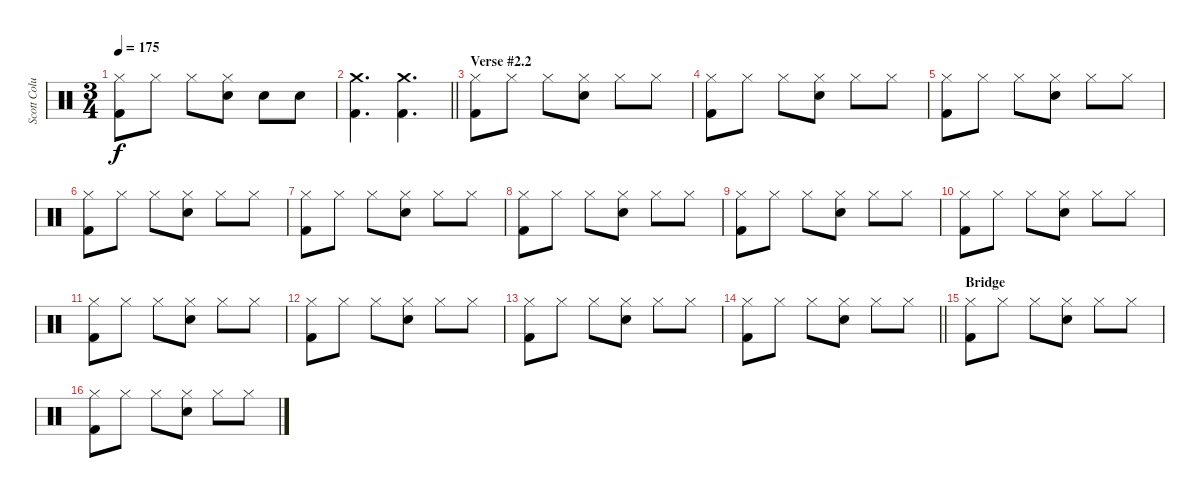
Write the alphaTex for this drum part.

\track ("Scott Columbus" "Scott Colu") {instrument percussion}
\staff {score}
\articulation defaults
\ts (3 4)
\tempo 175
\clef neutral
\ks c
("Kick (hit) 2" "Hi-Hat (closed)").8{dy f} "Hi-Hat (closed)".8 "Hi-Hat (closed)".8 ("Snare (hit) 2" "Hi-Hat (closed)").8 "Snare (hit) 2".8 "Snare (hit) 2".8 |
\barLineRight lightlight
("Kick (hit) 2" "Crash medium (hit)").4{d} ("Kick (hit) 2" "Crash medium (hit)").4{d} |
\section ("" "Verse #2.2")
("Kick (hit) 2" "Hi-Hat (closed)").8 "Hi-Hat (closed)".8 "Hi-Hat (closed)".8 ("Snare (hit) 2" "Hi-Hat (closed)").8 "Hi-Hat (closed)".8 "Hi-Hat (closed)".8 |
("Kick (hit) 2" "Hi-Hat (closed)").8 "Hi-Hat (closed)".8 "Hi-Hat (closed)".8 ("Snare (hit) 2" "Hi-Hat (closed)").8 "Hi-Hat (closed)".8 "Hi-Hat (closed)".8 |
("Kick (hit) 2" "Hi-Hat (closed)").8 "Hi-Hat (closed)".8 "Hi-Hat (closed)".8 ("Snare (hit) 2" "Hi-Hat (closed)").8 "Hi-Hat (closed)".8 "Hi-Hat (closed)".8 |
("Kick (hit) 2" "Hi-Hat (closed)").8 "Hi-Hat (closed)".8 "Hi-Hat (closed)".8 ("Snare (hit) 2" "Hi-Hat (closed)").8 "Hi-Hat (closed)".8 "Hi-Hat (closed)".8 |
("Kick (hit) 2" "Hi-Hat (closed)").8 "Hi-Hat (closed)".8 "Hi-Hat (closed)".8 ("Snare (hit) 2" "Hi-Hat (closed)").8 "Hi-Hat (closed)".8 "Hi-Hat (closed)".8 |
("Kick (hit) 2" "Hi-Hat (closed)").8 "Hi-Hat (closed)".8 "Hi-Hat (closed)".8 ("Snare (hit) 2" "Hi-Hat (closed)").8 "Hi-Hat (closed)".8 "Hi-Hat (closed)".8 |
("Kick (hit) 2" "Hi-Hat (closed)").8 "Hi-Hat (closed)".8 "Hi-Hat (closed)".8 ("Snare (hit) 2" "Hi-Hat (closed)").8 "Hi-Hat (closed)".8 "Hi-Hat (closed)".8 |
("Kick (hit) 2" "Hi-Hat (closed)").8 "Hi-Hat (closed)".8 "Hi-Hat (closed)".8 ("Snare (hit) 2" "Hi-Hat (closed)").8 "Hi-Hat (closed)".8 "Hi-Hat (closed)".8 |
("Kick (hit) 2" "Hi-Hat (closed)").8 "Hi-Hat (closed)".8 "Hi-Hat (closed)".8 ("Snare (hit) 2" "Hi-Hat (closed)").8 "Hi-Hat (closed)".8 "Hi-Hat (closed)".8 |
("Kick (hit) 2" "Hi-Hat (closed)").8 "Hi-Hat (closed)".8 "Hi-Hat (closed)".8 ("Snare (hit) 2" "Hi-Hat (closed)").8 "Hi-Hat (closed)".8 "Hi-Hat (closed)".8 |
("Kick (hit) 2" "Hi-Hat (closed)").8 "Hi-Hat (closed)".8 "Hi-Hat (closed)".8 ("Snare (hit) 2" "Hi-Hat (closed)").8 "Hi-Hat (closed)".8 "Hi-Hat (closed)".8 |
\barLineRight lightlight
("Kick (hit) 2" "Hi-Hat (closed)").8 "Hi-Hat (closed)".8 "Hi-Hat (closed)".8 ("Snare (hit) 2" "Hi-Hat (closed)").8 "Hi-Hat (closed)".8 "Hi-Hat (closed)".8 |
\section ("" "Bridge")
("Kick (hit) 2" "Hi-Hat (closed)").8 "Hi-Hat (closed)".8 "Hi-Hat (closed)".8 ("Snare (hit) 2" "Hi-Hat (closed)").8 "Hi-Hat (closed)".8 "Hi-Hat (closed)".8 |
("Kick (hit) 2" "Hi-Hat (closed)").8 "Hi-Hat (closed)".8 "Hi-Hat (closed)".8 ("Snare (hit) 2" "Hi-Hat (closed)").8 "Hi-Hat (closed)".8 "Hi-Hat (closed)".8
